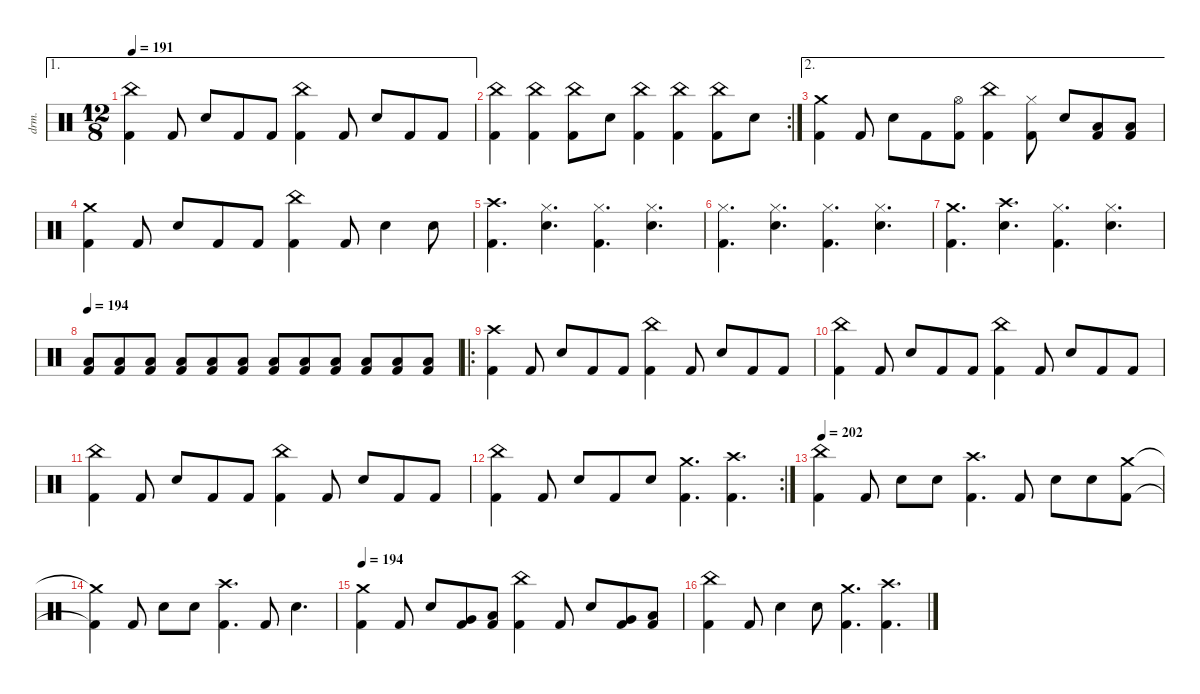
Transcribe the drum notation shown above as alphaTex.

\defaultSystemsLayout 4
\hideDynamics
\bracketExtendMode nobrackets
\otherSystemsTrackNameOrientation horizontal
\track ("Drums" "drm.") {defaultSystemsLayout 4 instrument percussion}
\staff {score}
\articulation defaults
\ae 1
\ts (12 8)
\tempo 191
\clef neutral
\ks c
("China (hit)" "Kick (hit) 2").4{dy f beam Down} "Kick (hit) 2".8{beam Up} "Snare (hit) 2".8{beam Up} "Kick (hit) 2".8{beam Up} "Kick (hit) 2".8{beam Up} ("China (hit)" "Kick (hit) 2").4{beam Down} "Kick (hit) 2".8{beam Up} "Snare (hit) 2".8{beam Up} "Kick (hit) 2".8{beam Up} "Kick (hit) 2".8{beam Up} |
\rc 2
("China (hit)" "Kick (hit) 2").4{beam Down} ("China (hit)" "Kick (hit) 2").4{beam Down} ("China (hit)" "Kick (hit) 2").8{beam Down} "Snare (hit) 2".8{beam Down} ("China (hit)" "Kick (hit) 2").4{beam Down} ("China (hit)" "Kick (hit) 2").4{beam Down} ("China (hit)" "Kick (hit) 2").8{beam Down} "Snare (hit) 2".8{beam Down} |
\ae 2
("Crash medium (hit)" "Kick (hit) 2").4{beam Down} "Kick (hit) 2".8{beam Up} "Snare (hit) 2".8{beam Down} "Kick (hit) 2".8{beam Down} ("Hi-Hat (open)" "Kick (hit) 2").8{beam Down} ("China (hit)" "Kick (hit) 2").4{beam Down} ("Hi-Hat (closed)" "Kick (hit) 2").8{beam Down} "Snare (hit) 2".8{beam Up} ("Low Tom (hit)" "Kick (hit) 2").8{beam Up} ("Low Floor Tom (hit)" "Kick (hit) 2").8{beam Up} |
("Crash medium (hit)" "Kick (hit) 2").4{beam Down} "Kick (hit) 2".8{beam Up} "Snare (hit) 2".8{beam Up} "Kick (hit) 2".8{beam Up} "Kick (hit) 2".8{beam Up} ("China (hit)" "Kick (hit) 2").4{beam Down} "Kick (hit) 2".8{beam Up} "Snare (hit) 2".4{beam Down} "Snare (hit) 2".8{beam Down} |
("Crash high (hit)" "Kick (hit) 2").4{d beam Down} ("Hi-Hat (closed)" "Snare (hit) 2").4{d beam Down} ("Hi-Hat (closed)" "Kick (hit) 2").4{d beam Down} ("Hi-Hat (closed)" "Snare (hit) 2").4{d beam Down} |
("Hi-Hat (closed)" "Kick (hit) 2").4{d beam Down} ("Hi-Hat (closed)" "Snare (hit) 2").4{d beam Down} ("Hi-Hat (closed)" "Kick (hit) 2").4{d beam Down} ("Hi-Hat (closed)" "Snare (hit) 2").4{d beam Down} |
("Crash medium (hit)" "Kick (hit) 2").4{d beam Down} ("Crash high (hit)" "Snare (hit) 2").4{d beam Down} ("Hi-Hat (closed)" "Kick (hit) 2").4{d beam Down} ("Hi-Hat (closed)" "Snare (hit) 2").4{d beam Down} |
\tempo 194
("Low Tom (hit)" "Kick (hit) 2").8{beam Up} ("Low Floor Tom (hit)" "Kick (hit) 2").8{beam Up} ("Low Floor Tom (hit)" "Kick (hit) 2").8{beam Up} ("Low Tom (hit)" "Kick (hit) 2").8{beam Up} ("Low Floor Tom (hit)" "Kick (hit) 2").8{beam Up} ("Low Floor Tom (hit)" "Kick (hit) 2").8{beam Up} ("Low Tom (hit)" "Kick (hit) 2").8{beam Up} ("Low Floor Tom (hit)" "Kick (hit) 2").8{beam Up} ("Low Floor Tom (hit)" "Kick (hit) 2").8{beam Up} ("Low Tom (hit)" "Kick (hit) 2").8{beam Up} ("Low Floor Tom (hit)" "Kick (hit) 2").8{beam Up} ("Low Floor Tom (hit)" "Kick (hit) 2").8{beam Up} |
\ro
("Crash high (hit)" "Kick (hit) 2").4{beam Down} "Kick (hit) 2".8{beam Up} "Snare (hit) 2".8{beam Up} "Kick (hit) 2".8{beam Up} "Kick (hit) 2".8{beam Up} ("China (hit)" "Kick (hit) 2").4{beam Down} "Kick (hit) 2".8{beam Up} "Snare (hit) 2".8{beam Up} "Kick (hit) 2".8{beam Up} "Kick (hit) 2".8{beam Up} |
("China (hit)" "Kick (hit) 2").4{beam Down} "Kick (hit) 2".8{beam Up} "Snare (hit) 2".8{beam Up} "Kick (hit) 2".8{beam Up} "Kick (hit) 2".8{beam Up} ("China (hit)" "Kick (hit) 2").4{beam Down} "Kick (hit) 2".8{beam Up} "Snare (hit) 2".8{beam Up} "Kick (hit) 2".8{beam Up} "Kick (hit) 2".8{beam Up} |
("China (hit)" "Kick (hit) 2").4{beam Down} "Kick (hit) 2".8{beam Up} "Snare (hit) 2".8{beam Up} "Kick (hit) 2".8{beam Up} "Kick (hit) 2".8{beam Up} ("China (hit)" "Kick (hit) 2").4{beam Down} "Kick (hit) 2".8{beam Up} "Snare (hit) 2".8{beam Up} "Kick (hit) 2".8{beam Up} "Kick (hit) 2".8{beam Up} |
\rc 2
("China (hit)" "Kick (hit) 2").4{beam Down} "Kick (hit) 2".8{beam Up} "Snare (hit) 2".8{beam Up} "Kick (hit) 2".8{beam Up} "Snare (hit) 2".8{beam Up} ("Crash medium (hit)" "Kick (hit) 2").4{d beam Down} ("Crash high (hit)" "Kick (hit) 2").4{d beam Down} |
\tempo 202
("China (hit)" "Kick (hit) 2").4{beam Down} "Kick (hit) 2".8{beam Up} "Snare (hit) 2".8{beam Down} "Snare (hit) 2".8{beam Down} ("Crash high (hit)" "Kick (hit) 2").4{d beam Down} "Kick (hit) 2".8{beam Up} "Snare (hit) 2".8{beam Down} "Snare (hit) 2".8{beam Down} ("Crash medium (hit)" "Kick (hit) 2").8{beam Down} |
("Crash medium (hit)"{t} "Kick (hit) 2"{t}).4{beam Down} "Kick (hit) 2".8{beam Up} "Snare (hit) 2".8{beam Down} "Snare (hit) 2".8{beam Down} ("Crash high (hit)" "Kick (hit) 2").4{d beam Down} "Kick (hit) 2".8{beam Up} "Snare (hit) 2".4{d beam Down} |
\tempo 194
("Crash medium (hit)" "Kick (hit) 2").4{beam Down} "Kick (hit) 2".8{beam Up} "Snare (hit) 2".8{beam Up} ("Very Low Tom (hit)" "Kick (hit) 2").8{beam Up} ("Low Floor Tom (hit)" "Kick (hit) 2").8{beam Up} ("China (hit)" "Kick (hit) 2").4{beam Down} "Kick (hit) 2".8{beam Up} "Snare (hit) 2".8{beam Up} ("Very Low Tom (hit)" "Kick (hit) 2").8{beam Up} ("Low Floor Tom (hit)" "Kick (hit) 2").8{beam Up} |
("China (hit)" "Kick (hit) 2").4{beam Down} "Kick (hit) 2".8{beam Up} "Snare (hit) 2".4{beam Down} "Snare (hit) 2".8{beam Down} ("Crash medium (hit)" "Kick (hit) 2").4{d beam Down} ("Crash high (hit)" "Kick (hit) 2").4{d beam Down}
